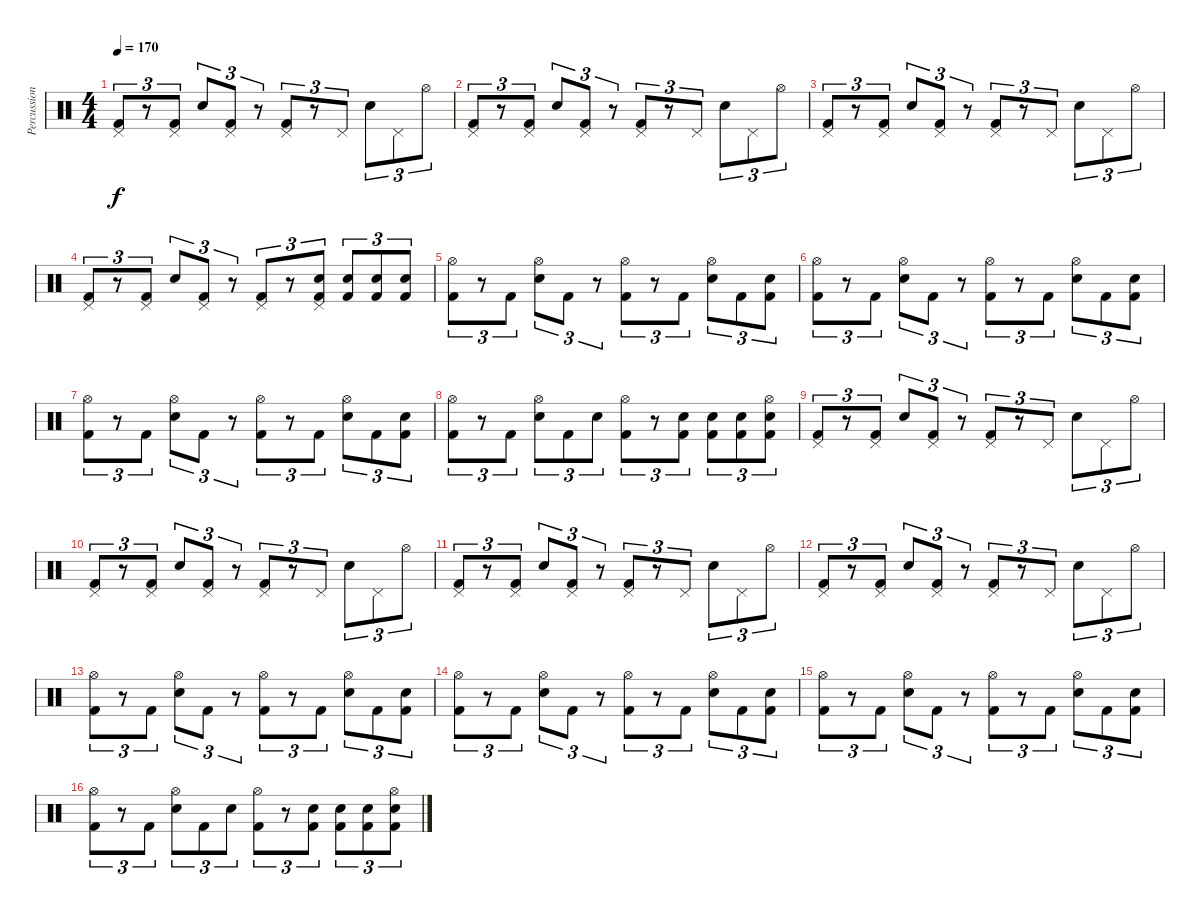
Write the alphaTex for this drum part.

\track ("Percussion" "Percussion") {instrument percussion}
\staff {score}
\articulation defaults
\ts (4 4)
\tempo 170
\clef neutral
\ks c
("Pedal Hi-Hat (hit)" "Kick (hit) 2").8{tu (3 2) dy f} r.8{tu (3 2)} ("Pedal Hi-Hat (hit)" "Kick (hit) 2").8{tu (3 2)} "Snare (hit) 2".8{tu (3 2)} ("Pedal Hi-Hat (hit)" "Kick (hit) 2").8{tu (3 2)} r.8{tu (3 2)} ("Pedal Hi-Hat (hit)" "Kick (hit) 2").8{tu (3 2)} r.8{tu (3 2)} "Pedal Hi-Hat (hit)".8{tu (3 2)} "Snare (hit) 2".8{tu (3 2)} "Pedal Hi-Hat (hit)".8{tu (3 2)} "Hi-Hat (open)".8{tu (3 2)} |
("Pedal Hi-Hat (hit)" "Kick (hit) 2").8{tu (3 2)} r.8{tu (3 2)} ("Pedal Hi-Hat (hit)" "Kick (hit) 2").8{tu (3 2)} "Snare (hit) 2".8{tu (3 2)} ("Pedal Hi-Hat (hit)" "Kick (hit) 2").8{tu (3 2)} r.8{tu (3 2)} ("Pedal Hi-Hat (hit)" "Kick (hit) 2").8{tu (3 2)} r.8{tu (3 2)} "Pedal Hi-Hat (hit)".8{tu (3 2)} "Snare (hit) 2".8{tu (3 2)} "Pedal Hi-Hat (hit)".8{tu (3 2)} "Hi-Hat (open)".8{tu (3 2)} |
("Pedal Hi-Hat (hit)" "Kick (hit) 2").8{tu (3 2)} r.8{tu (3 2)} ("Pedal Hi-Hat (hit)" "Kick (hit) 2").8{tu (3 2)} "Snare (hit) 2".8{tu (3 2)} ("Pedal Hi-Hat (hit)" "Kick (hit) 2").8{tu (3 2)} r.8{tu (3 2)} ("Pedal Hi-Hat (hit)" "Kick (hit) 2").8{tu (3 2)} r.8{tu (3 2)} "Pedal Hi-Hat (hit)".8{tu (3 2)} "Snare (hit) 2".8{tu (3 2)} "Pedal Hi-Hat (hit)".8{tu (3 2)} "Hi-Hat (open)".8{tu (3 2)} |
("Pedal Hi-Hat (hit)" "Kick (hit) 2").8{tu (3 2)} r.8{tu (3 2)} ("Pedal Hi-Hat (hit)" "Kick (hit) 2").8{tu (3 2)} "Snare (hit) 2".8{tu (3 2)} ("Pedal Hi-Hat (hit)" "Kick (hit) 2").8{tu (3 2)} r.8{tu (3 2)} ("Pedal Hi-Hat (hit)" "Kick (hit) 2").8{tu (3 2)} r.8{tu (3 2)} ("Pedal Hi-Hat (hit)" "Snare (hit) 2" "Kick (hit) 2").8{tu (3 2)} ("Snare (hit) 2" "Kick (hit) 2").8{tu (3 2)} ("Snare (hit) 2" "Kick (hit) 2").8{tu (3 2)} ("Snare (hit) 2" "Kick (hit) 2").8{tu (3 2)} |
("Hi-Hat (open)" "Kick (hit) 2").8{tu (3 2)} r.8{tu (3 2)} "Kick (hit) 2".8{tu (3 2)} ("Hi-Hat (open)" "Snare (hit) 2").8{tu (3 2)} "Kick (hit) 2".8{tu (3 2)} r.8{tu (3 2)} ("Hi-Hat (open)" "Kick (hit) 2").8{tu (3 2)} r.8{tu (3 2)} "Kick (hit) 2".8{tu (3 2)} ("Hi-Hat (open)" "Snare (hit) 2").8{tu (3 2)} "Kick (hit) 2".8{tu (3 2)} ("Snare (hit) 2" "Kick (hit) 2").8{tu (3 2)} |
("Hi-Hat (open)" "Kick (hit) 2").8{tu (3 2)} r.8{tu (3 2)} "Kick (hit) 2".8{tu (3 2)} ("Hi-Hat (open)" "Snare (hit) 2").8{tu (3 2)} "Kick (hit) 2".8{tu (3 2)} r.8{tu (3 2)} ("Hi-Hat (open)" "Kick (hit) 2").8{tu (3 2)} r.8{tu (3 2)} "Kick (hit) 2".8{tu (3 2)} ("Hi-Hat (open)" "Snare (hit) 2").8{tu (3 2)} "Kick (hit) 2".8{tu (3 2)} ("Snare (hit) 2" "Kick (hit) 2").8{tu (3 2)} |
("Hi-Hat (open)" "Kick (hit) 2").8{tu (3 2)} r.8{tu (3 2)} "Kick (hit) 2".8{tu (3 2)} ("Hi-Hat (open)" "Snare (hit) 2").8{tu (3 2)} "Kick (hit) 2".8{tu (3 2)} r.8{tu (3 2)} ("Hi-Hat (open)" "Kick (hit) 2").8{tu (3 2)} r.8{tu (3 2)} "Kick (hit) 2".8{tu (3 2)} ("Hi-Hat (open)" "Snare (hit) 2").8{tu (3 2)} "Kick (hit) 2".8{tu (3 2)} ("Snare (hit) 2" "Kick (hit) 2").8{tu (3 2)} |
("Hi-Hat (open)" "Kick (hit) 2").8{tu (3 2)} r.8{tu (3 2)} "Kick (hit) 2".8{tu (3 2)} ("Hi-Hat (open)" "Snare (hit) 2").8{tu (3 2)} "Kick (hit) 2".8{tu (3 2)} "Snare (hit) 2".8{tu (3 2)} ("Hi-Hat (open)" "Kick (hit) 2").8{tu (3 2)} r.8{tu (3 2)} ("Snare (hit) 2" "Kick (hit) 2").8{tu (3 2)} ("Snare (hit) 2" "Kick (hit) 2").8{tu (3 2)} ("Snare (hit) 2" "Kick (hit) 2").8{tu (3 2)} ("Hi-Hat (open)" "Snare (hit) 2" "Kick (hit) 2").8{tu (3 2)} |
("Pedal Hi-Hat (hit)" "Kick (hit) 2").8{tu (3 2)} r.8{tu (3 2)} ("Pedal Hi-Hat (hit)" "Kick (hit) 2").8{tu (3 2)} "Snare (hit) 2".8{tu (3 2)} ("Pedal Hi-Hat (hit)" "Kick (hit) 2").8{tu (3 2)} r.8{tu (3 2)} ("Pedal Hi-Hat (hit)" "Kick (hit) 2").8{tu (3 2)} r.8{tu (3 2)} "Pedal Hi-Hat (hit)".8{tu (3 2)} "Snare (hit) 2".8{tu (3 2)} "Pedal Hi-Hat (hit)".8{tu (3 2)} "Hi-Hat (open)".8{tu (3 2)} |
("Pedal Hi-Hat (hit)" "Kick (hit) 2").8{tu (3 2)} r.8{tu (3 2)} ("Pedal Hi-Hat (hit)" "Kick (hit) 2").8{tu (3 2)} "Snare (hit) 2".8{tu (3 2)} ("Pedal Hi-Hat (hit)" "Kick (hit) 2").8{tu (3 2)} r.8{tu (3 2)} ("Pedal Hi-Hat (hit)" "Kick (hit) 2").8{tu (3 2)} r.8{tu (3 2)} "Pedal Hi-Hat (hit)".8{tu (3 2)} "Snare (hit) 2".8{tu (3 2)} "Pedal Hi-Hat (hit)".8{tu (3 2)} "Hi-Hat (open)".8{tu (3 2)} |
("Pedal Hi-Hat (hit)" "Kick (hit) 2").8{tu (3 2)} r.8{tu (3 2)} ("Pedal Hi-Hat (hit)" "Kick (hit) 2").8{tu (3 2)} "Snare (hit) 2".8{tu (3 2)} ("Pedal Hi-Hat (hit)" "Kick (hit) 2").8{tu (3 2)} r.8{tu (3 2)} ("Pedal Hi-Hat (hit)" "Kick (hit) 2").8{tu (3 2)} r.8{tu (3 2)} "Pedal Hi-Hat (hit)".8{tu (3 2)} "Snare (hit) 2".8{tu (3 2)} "Pedal Hi-Hat (hit)".8{tu (3 2)} "Hi-Hat (open)".8{tu (3 2)} |
("Pedal Hi-Hat (hit)" "Kick (hit) 2").8{tu (3 2)} r.8{tu (3 2)} ("Pedal Hi-Hat (hit)" "Kick (hit) 2").8{tu (3 2)} "Snare (hit) 2".8{tu (3 2)} ("Pedal Hi-Hat (hit)" "Kick (hit) 2").8{tu (3 2)} r.8{tu (3 2)} ("Pedal Hi-Hat (hit)" "Kick (hit) 2").8{tu (3 2)} r.8{tu (3 2)} "Pedal Hi-Hat (hit)".8{tu (3 2)} "Snare (hit) 2".8{tu (3 2)} "Pedal Hi-Hat (hit)".8{tu (3 2)} "Hi-Hat (open)".8{tu (3 2)} |
("Hi-Hat (open)" "Kick (hit) 2").8{tu (3 2)} r.8{tu (3 2)} "Kick (hit) 2".8{tu (3 2)} ("Hi-Hat (open)" "Snare (hit) 2").8{tu (3 2)} "Kick (hit) 2".8{tu (3 2)} r.8{tu (3 2)} ("Hi-Hat (open)" "Kick (hit) 2").8{tu (3 2)} r.8{tu (3 2)} "Kick (hit) 2".8{tu (3 2)} ("Hi-Hat (open)" "Snare (hit) 2").8{tu (3 2)} "Kick (hit) 2".8{tu (3 2)} ("Snare (hit) 2" "Kick (hit) 2").8{tu (3 2)} |
("Hi-Hat (open)" "Kick (hit) 2").8{tu (3 2)} r.8{tu (3 2)} "Kick (hit) 2".8{tu (3 2)} ("Hi-Hat (open)" "Snare (hit) 2").8{tu (3 2)} "Kick (hit) 2".8{tu (3 2)} r.8{tu (3 2)} ("Hi-Hat (open)" "Kick (hit) 2").8{tu (3 2)} r.8{tu (3 2)} "Kick (hit) 2".8{tu (3 2)} ("Hi-Hat (open)" "Snare (hit) 2").8{tu (3 2)} "Kick (hit) 2".8{tu (3 2)} ("Snare (hit) 2" "Kick (hit) 2").8{tu (3 2)} |
("Hi-Hat (open)" "Kick (hit) 2").8{tu (3 2)} r.8{tu (3 2)} "Kick (hit) 2".8{tu (3 2)} ("Hi-Hat (open)" "Snare (hit) 2").8{tu (3 2)} "Kick (hit) 2".8{tu (3 2)} r.8{tu (3 2)} ("Hi-Hat (open)" "Kick (hit) 2").8{tu (3 2)} r.8{tu (3 2)} "Kick (hit) 2".8{tu (3 2)} ("Hi-Hat (open)" "Snare (hit) 2").8{tu (3 2)} "Kick (hit) 2".8{tu (3 2)} ("Snare (hit) 2" "Kick (hit) 2").8{tu (3 2)} |
("Hi-Hat (open)" "Kick (hit) 2").8{tu (3 2)} r.8{tu (3 2)} "Kick (hit) 2".8{tu (3 2)} ("Hi-Hat (open)" "Snare (hit) 2").8{tu (3 2)} "Kick (hit) 2".8{tu (3 2)} "Snare (hit) 2".8{tu (3 2)} ("Hi-Hat (open)" "Kick (hit) 2").8{tu (3 2)} r.8{tu (3 2)} ("Snare (hit) 2" "Kick (hit) 2").8{tu (3 2)} ("Snare (hit) 2" "Kick (hit) 2").8{tu (3 2)} ("Snare (hit) 2" "Kick (hit) 2").8{tu (3 2)} ("Hi-Hat (open)" "Snare (hit) 2" "Kick (hit) 2").8{tu (3 2)}
